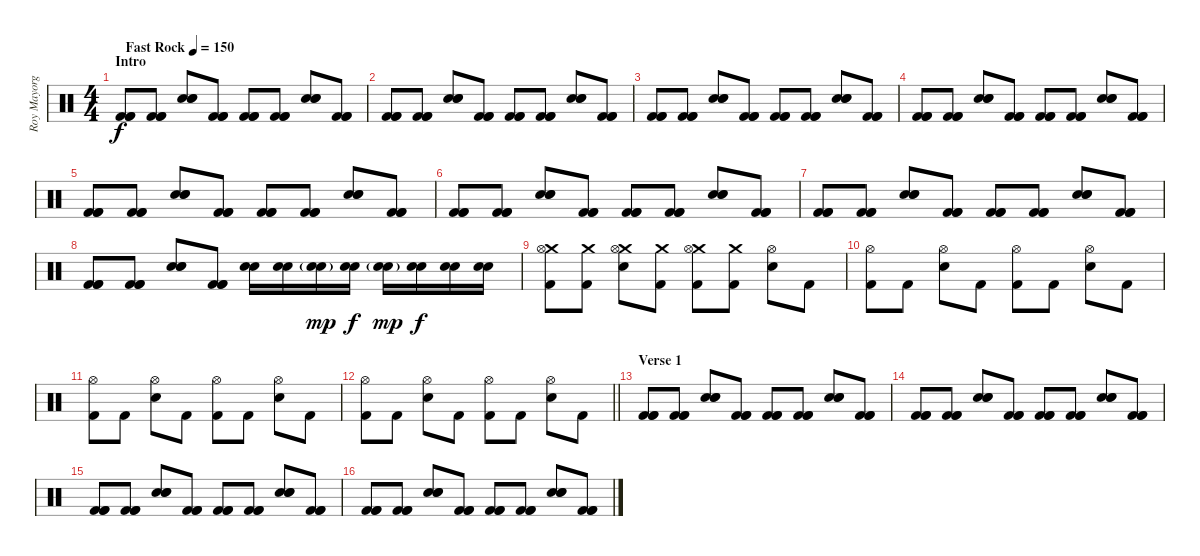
\track ("Roy Mayorga" "Roy Mayorg") {instrument percussion}
\staff {score}
\articulation defaults
\ts (4 4)
\section ("" "Intro")
\tempo (150 "Fast Rock")
\clef neutral
\ks c
("Kick (hit) 2" "Kick (hit) 2" "Kick (hit) 2").8{dy f} ("Kick (hit) 2" "Kick (hit) 2" "Kick (hit) 2").8 ("Snare (hit) 2" "Snare (hit) 2" "Snare (hit) 2").8 ("Kick (hit) 2" "Kick (hit) 2" "Kick (hit) 2").8 ("Kick (hit) 2" "Kick (hit) 2" "Kick (hit) 2").8 ("Kick (hit) 2" "Kick (hit) 2" "Kick (hit) 2").8 ("Snare (hit) 2" "Snare (hit) 2" "Snare (hit) 2").8 ("Kick (hit) 2" "Kick (hit) 2" "Kick (hit) 2").8 |
("Kick (hit) 2" "Kick (hit) 2" "Kick (hit) 2").8 ("Kick (hit) 2" "Kick (hit) 2" "Kick (hit) 2").8 ("Snare (hit) 2" "Snare (hit) 2" "Snare (hit) 2").8 ("Kick (hit) 2" "Kick (hit) 2" "Kick (hit) 2").8 ("Kick (hit) 2" "Kick (hit) 2" "Kick (hit) 2").8 ("Kick (hit) 2" "Kick (hit) 2" "Kick (hit) 2").8 ("Snare (hit) 2" "Snare (hit) 2" "Snare (hit) 2").8 ("Kick (hit) 2" "Kick (hit) 2" "Kick (hit) 2").8 |
("Kick (hit) 2" "Kick (hit) 2" "Kick (hit) 2").8 ("Kick (hit) 2" "Kick (hit) 2" "Kick (hit) 2").8 ("Snare (hit) 2" "Snare (hit) 2" "Snare (hit) 2").8 ("Kick (hit) 2" "Kick (hit) 2" "Kick (hit) 2").8 ("Kick (hit) 2" "Kick (hit) 2" "Kick (hit) 2").8 ("Kick (hit) 2" "Kick (hit) 2" "Kick (hit) 2").8 ("Snare (hit) 2" "Snare (hit) 2" "Snare (hit) 2").8 ("Kick (hit) 2" "Kick (hit) 2" "Kick (hit) 2").8 |
("Kick (hit) 2" "Kick (hit) 2" "Kick (hit) 2").8 ("Kick (hit) 2" "Kick (hit) 2" "Kick (hit) 2").8 ("Snare (hit) 2" "Snare (hit) 2" "Snare (hit) 2").8 ("Kick (hit) 2" "Kick (hit) 2" "Kick (hit) 2").8 ("Kick (hit) 2" "Kick (hit) 2" "Kick (hit) 2").8 ("Kick (hit) 2" "Kick (hit) 2" "Kick (hit) 2").8 ("Snare (hit) 2" "Snare (hit) 2" "Snare (hit) 2").8 ("Kick (hit) 2" "Kick (hit) 2" "Kick (hit) 2").8 |
("Kick (hit) 2" "Kick (hit) 2" "Kick (hit) 2").8 ("Kick (hit) 2" "Kick (hit) 2" "Kick (hit) 2").8 ("Snare (hit) 2" "Snare (hit) 2" "Snare (hit) 2").8 ("Kick (hit) 2" "Kick (hit) 2" "Kick (hit) 2").8 ("Kick (hit) 2" "Kick (hit) 2" "Kick (hit) 2").8 ("Kick (hit) 2" "Kick (hit) 2" "Kick (hit) 2").8 ("Snare (hit) 2" "Snare (hit) 2" "Snare (hit) 2").8 ("Kick (hit) 2" "Kick (hit) 2" "Kick (hit) 2").8 |
("Kick (hit) 2" "Kick (hit) 2" "Kick (hit) 2").8 ("Kick (hit) 2" "Kick (hit) 2" "Kick (hit) 2").8 ("Snare (hit) 2" "Snare (hit) 2" "Snare (hit) 2").8 ("Kick (hit) 2" "Kick (hit) 2" "Kick (hit) 2").8 ("Kick (hit) 2" "Kick (hit) 2" "Kick (hit) 2").8 ("Kick (hit) 2" "Kick (hit) 2" "Kick (hit) 2").8 ("Snare (hit) 2" "Snare (hit) 2" "Snare (hit) 2").8 ("Kick (hit) 2" "Kick (hit) 2" "Kick (hit) 2").8 |
("Kick (hit) 2" "Kick (hit) 2" "Kick (hit) 2").8 ("Kick (hit) 2" "Kick (hit) 2" "Kick (hit) 2").8 ("Snare (hit) 2" "Snare (hit) 2" "Snare (hit) 2").8 ("Kick (hit) 2" "Kick (hit) 2" "Kick (hit) 2").8 ("Kick (hit) 2" "Kick (hit) 2" "Kick (hit) 2").8 ("Kick (hit) 2" "Kick (hit) 2" "Kick (hit) 2").8 ("Snare (hit) 2" "Snare (hit) 2" "Snare (hit) 2").8 ("Kick (hit) 2" "Kick (hit) 2" "Kick (hit) 2").8 |
("Kick (hit) 2" "Kick (hit) 2" "Kick (hit) 2").8 ("Kick (hit) 2" "Kick (hit) 2" "Kick (hit) 2").8 ("Snare (hit) 2" "Snare (hit) 2" "Snare (hit) 2").8 ("Kick (hit) 2" "Kick (hit) 2" "Kick (hit) 2").8 ("Electric Snare (hit)" "Electric Snare (hit)").16 ("Electric Snare (hit)" "Electric Snare (hit)").16 ("Electric Snare (hit)"{g} "Electric Snare (hit)"{g}).16{dy mp} ("Electric Snare (hit)" "Electric Snare (hit)").16{dy f} ("Electric Snare (hit)"{g} "Electric Snare (hit)"{g}).16{dy mp} ("Electric Snare (hit)" "Electric Snare (hit)").16{dy f} ("Electric Snare (hit)" "Electric Snare (hit)").16 ("Electric Snare (hit)" "Electric Snare (hit)").16 |
("Crash medium (hit)" "Hi-Hat (open)" "Kick (hit) 2").8 ("Crash medium (hit)" "Kick (hit) 2").8 ("Crash medium (hit)" "Hi-Hat (open)" "Electric Snare (hit)").8 ("Crash medium (hit)" "Kick (hit) 2").8 ("Crash medium (hit)" "Hi-Hat (open)" "Kick (hit) 2").8 ("Crash medium (hit)" "Kick (hit) 2").8 ("Hi-Hat (open)" "Electric Snare (hit)").8 "Kick (hit) 2".8 |
("Hi-Hat (open)" "Kick (hit) 2").8 "Kick (hit) 2".8 ("Hi-Hat (open)" "Electric Snare (hit)").8 "Kick (hit) 2".8 ("Hi-Hat (open)" "Kick (hit) 2").8 "Kick (hit) 2".8 ("Hi-Hat (open)" "Electric Snare (hit)").8 "Kick (hit) 2".8 |
("Hi-Hat (open)" "Kick (hit) 2").8 "Kick (hit) 2".8 ("Hi-Hat (open)" "Electric Snare (hit)").8 "Kick (hit) 2".8 ("Hi-Hat (open)" "Kick (hit) 2").8 "Kick (hit) 2".8 ("Hi-Hat (open)" "Electric Snare (hit)").8 "Kick (hit) 2".8 |
\barLineRight lightlight
("Hi-Hat (open)" "Kick (hit) 2").8 "Kick (hit) 2".8 ("Hi-Hat (open)" "Electric Snare (hit)").8 "Kick (hit) 2".8 ("Hi-Hat (open)" "Kick (hit) 2").8 "Kick (hit) 2".8 ("Hi-Hat (open)" "Electric Snare (hit)").8 "Kick (hit) 2".8 |
\section ("" "Verse 1")
("Kick (hit) 2" "Kick (hit) 2" "Kick (hit) 2").8 ("Kick (hit) 2" "Kick (hit) 2" "Kick (hit) 2").8 ("Snare (hit) 2" "Snare (hit) 2" "Snare (hit) 2").8 ("Kick (hit) 2" "Kick (hit) 2" "Kick (hit) 2").8 ("Kick (hit) 2" "Kick (hit) 2" "Kick (hit) 2").8 ("Kick (hit) 2" "Kick (hit) 2" "Kick (hit) 2").8 ("Snare (hit) 2" "Snare (hit) 2" "Snare (hit) 2").8 ("Kick (hit) 2" "Kick (hit) 2" "Kick (hit) 2").8 |
("Kick (hit) 2" "Kick (hit) 2" "Kick (hit) 2").8 ("Kick (hit) 2" "Kick (hit) 2" "Kick (hit) 2").8 ("Snare (hit) 2" "Snare (hit) 2" "Snare (hit) 2").8 ("Kick (hit) 2" "Kick (hit) 2" "Kick (hit) 2").8 ("Kick (hit) 2" "Kick (hit) 2" "Kick (hit) 2").8 ("Kick (hit) 2" "Kick (hit) 2" "Kick (hit) 2").8 ("Snare (hit) 2" "Snare (hit) 2" "Snare (hit) 2").8 ("Kick (hit) 2" "Kick (hit) 2" "Kick (hit) 2").8 |
("Kick (hit) 2" "Kick (hit) 2" "Kick (hit) 2").8 ("Kick (hit) 2" "Kick (hit) 2" "Kick (hit) 2").8 ("Snare (hit) 2" "Snare (hit) 2" "Snare (hit) 2").8 ("Kick (hit) 2" "Kick (hit) 2" "Kick (hit) 2").8 ("Kick (hit) 2" "Kick (hit) 2" "Kick (hit) 2").8 ("Kick (hit) 2" "Kick (hit) 2" "Kick (hit) 2").8 ("Snare (hit) 2" "Snare (hit) 2" "Snare (hit) 2").8 ("Kick (hit) 2" "Kick (hit) 2" "Kick (hit) 2").8 |
("Kick (hit) 2" "Kick (hit) 2" "Kick (hit) 2").8 ("Kick (hit) 2" "Kick (hit) 2" "Kick (hit) 2").8 ("Snare (hit) 2" "Snare (hit) 2" "Snare (hit) 2").8 ("Kick (hit) 2" "Kick (hit) 2" "Kick (hit) 2").8 ("Kick (hit) 2" "Kick (hit) 2" "Kick (hit) 2").8 ("Kick (hit) 2" "Kick (hit) 2" "Kick (hit) 2").8 ("Snare (hit) 2" "Snare (hit) 2" "Snare (hit) 2").8 ("Kick (hit) 2" "Kick (hit) 2" "Kick (hit) 2").8
